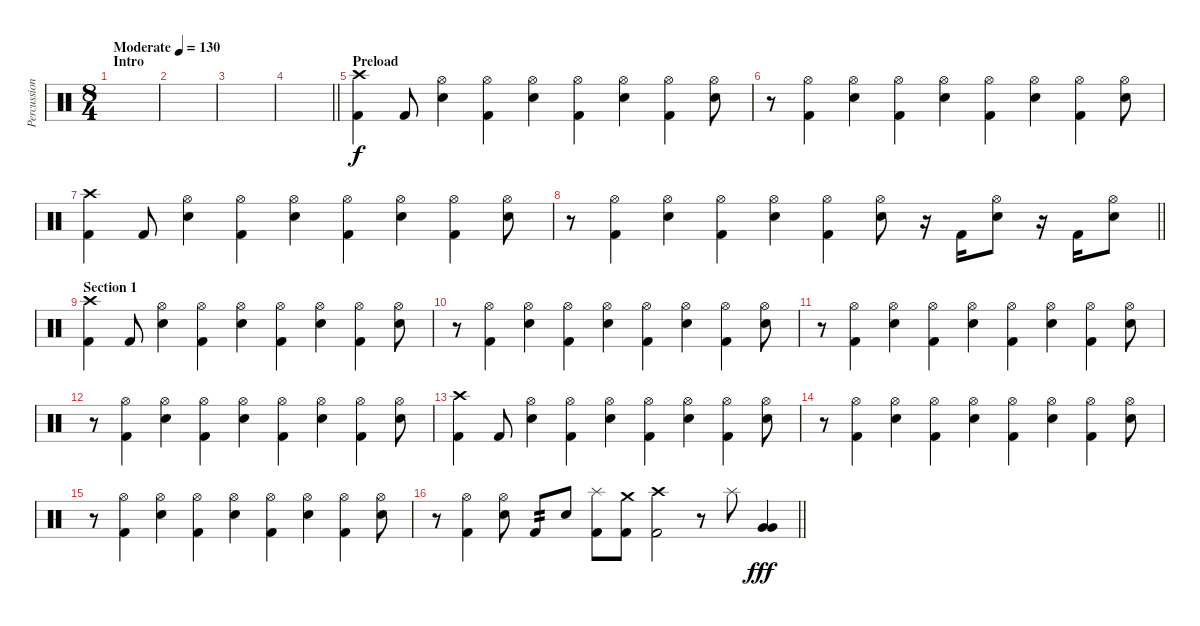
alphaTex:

\track ("Percussion" "Percussion") {instrument percussion}
\staff {score}
\articulation defaults
\ts (8 4)
\section ("" "Intro")
\tempo (130 "Moderate")
\clef neutral
\ks c
|
|
|
\barLineRight lightlight
|
\section ("" "Preload")
("Crash high (hit)" "Kick (hit) 2").4 "Kick (hit) 2".8 ("Hi-Hat (open)" "Snare (hit) 2").4 ("Hi-Hat (open)" "Kick (hit) 2").4 ("Hi-Hat (open)" "Snare (hit) 2").4 ("Hi-Hat (open)" "Kick (hit) 2").4 ("Hi-Hat (open)" "Snare (hit) 2").4 ("Hi-Hat (open)" "Kick (hit) 2").4 ("Hi-Hat (open)" "Snare (hit) 2").8 |
r.8 ("Hi-Hat (open)" "Kick (hit) 2").4 ("Hi-Hat (open)" "Snare (hit) 2").4 ("Hi-Hat (open)" "Kick (hit) 2").4 ("Hi-Hat (open)" "Snare (hit) 2").4 ("Hi-Hat (open)" "Kick (hit) 2").4 ("Hi-Hat (open)" "Snare (hit) 2").4 ("Hi-Hat (open)" "Kick (hit) 2").4 ("Hi-Hat (open)" "Snare (hit) 2").8 |
("Crash high (hit)" "Kick (hit) 2").4 "Kick (hit) 2".8 ("Hi-Hat (open)" "Snare (hit) 2").4 ("Hi-Hat (open)" "Kick (hit) 2").4 ("Hi-Hat (open)" "Snare (hit) 2").4 ("Hi-Hat (open)" "Kick (hit) 2").4 ("Hi-Hat (open)" "Snare (hit) 2").4 ("Hi-Hat (open)" "Kick (hit) 2").4 ("Hi-Hat (open)" "Snare (hit) 2").8 |
\barLineRight lightlight
r.8 ("Hi-Hat (open)" "Kick (hit) 2").4 ("Hi-Hat (open)" "Snare (hit) 2").4 ("Hi-Hat (open)" "Kick (hit) 2").4 ("Hi-Hat (open)" "Snare (hit) 2").4 ("Hi-Hat (open)" "Kick (hit) 2").4 ("Hi-Hat (open)" "Snare (hit) 2").8 r.16 "Kick (hit) 2".16 ("Hi-Hat (open)" "Snare (hit) 2").8 r.16 "Kick (hit) 2".16 ("Hi-Hat (open)" "Snare (hit) 2").8 |
\section ("" "Section 1")
("Crash high (hit)" "Kick (hit) 2").4 "Kick (hit) 2".8 ("Hi-Hat (open)" "Snare (hit) 2").4 ("Hi-Hat (open)" "Kick (hit) 2").4 ("Hi-Hat (open)" "Snare (hit) 2").4 ("Hi-Hat (open)" "Kick (hit) 2").4 ("Hi-Hat (open)" "Snare (hit) 2").4 ("Hi-Hat (open)" "Kick (hit) 2").4 ("Hi-Hat (open)" "Snare (hit) 2").8 |
r.8 ("Hi-Hat (open)" "Kick (hit) 2").4 ("Hi-Hat (open)" "Snare (hit) 2").4 ("Hi-Hat (open)" "Kick (hit) 2").4 ("Hi-Hat (open)" "Snare (hit) 2").4 ("Hi-Hat (open)" "Kick (hit) 2").4 ("Hi-Hat (open)" "Snare (hit) 2").4 ("Hi-Hat (open)" "Kick (hit) 2").4 ("Hi-Hat (open)" "Snare (hit) 2").8 |
r.8 ("Hi-Hat (open)" "Kick (hit) 2").4 ("Hi-Hat (open)" "Snare (hit) 2").4 ("Hi-Hat (open)" "Kick (hit) 2").4 ("Hi-Hat (open)" "Snare (hit) 2").4 ("Hi-Hat (open)" "Kick (hit) 2").4 ("Hi-Hat (open)" "Snare (hit) 2").4 ("Hi-Hat (open)" "Kick (hit) 2").4 ("Hi-Hat (open)" "Snare (hit) 2").8 |
r.8 ("Hi-Hat (open)" "Kick (hit) 2").4 ("Hi-Hat (open)" "Snare (hit) 2").4 ("Hi-Hat (open)" "Kick (hit) 2").4 ("Hi-Hat (open)" "Snare (hit) 2").4 ("Hi-Hat (open)" "Kick (hit) 2").4 ("Hi-Hat (open)" "Snare (hit) 2").4 ("Hi-Hat (open)" "Kick (hit) 2").4 ("Hi-Hat (open)" "Snare (hit) 2").8 |
("Crash high (hit)" "Kick (hit) 2").4 "Kick (hit) 2".8 ("Hi-Hat (open)" "Snare (hit) 2").4 ("Hi-Hat (open)" "Kick (hit) 2").4 ("Hi-Hat (open)" "Snare (hit) 2").4 ("Hi-Hat (open)" "Kick (hit) 2").4 ("Hi-Hat (open)" "Snare (hit) 2").4 ("Hi-Hat (open)" "Kick (hit) 2").4 ("Hi-Hat (open)" "Snare (hit) 2").8 |
r.8 ("Hi-Hat (open)" "Kick (hit) 2").4 ("Hi-Hat (open)" "Snare (hit) 2").4 ("Hi-Hat (open)" "Kick (hit) 2").4 ("Hi-Hat (open)" "Snare (hit) 2").4 ("Hi-Hat (open)" "Kick (hit) 2").4 ("Hi-Hat (open)" "Snare (hit) 2").4 ("Hi-Hat (open)" "Kick (hit) 2").4 ("Hi-Hat (open)" "Snare (hit) 2").8 |
r.8 ("Hi-Hat (open)" "Kick (hit) 2").4 ("Hi-Hat (open)" "Snare (hit) 2").4 ("Hi-Hat (open)" "Kick (hit) 2").4 ("Hi-Hat (open)" "Snare (hit) 2").4 ("Hi-Hat (open)" "Kick (hit) 2").4 ("Hi-Hat (open)" "Snare (hit) 2").4 ("Hi-Hat (open)" "Kick (hit) 2").4 ("Hi-Hat (open)" "Snare (hit) 2").8 |
\barLineRight lightlight
r.8 ("Hi-Hat (open)" "Kick (hit) 2").4 ("Hi-Hat (open)" "Snare (hit) 2").8 "Kick (hit) 2".8{tp 2} "Snare (hit) 2".8 ("Splash (hit)" "Kick (hit) 2").8 ("Crash medium (hit)" "Kick (hit) 2").8 ("Crash high (hit)" "Kick (hit) 2").2 r.8 "Splash (hit)".8 ("Very Low Tom (hit)" "Very Low Tom (hit)").4{dy fff}
